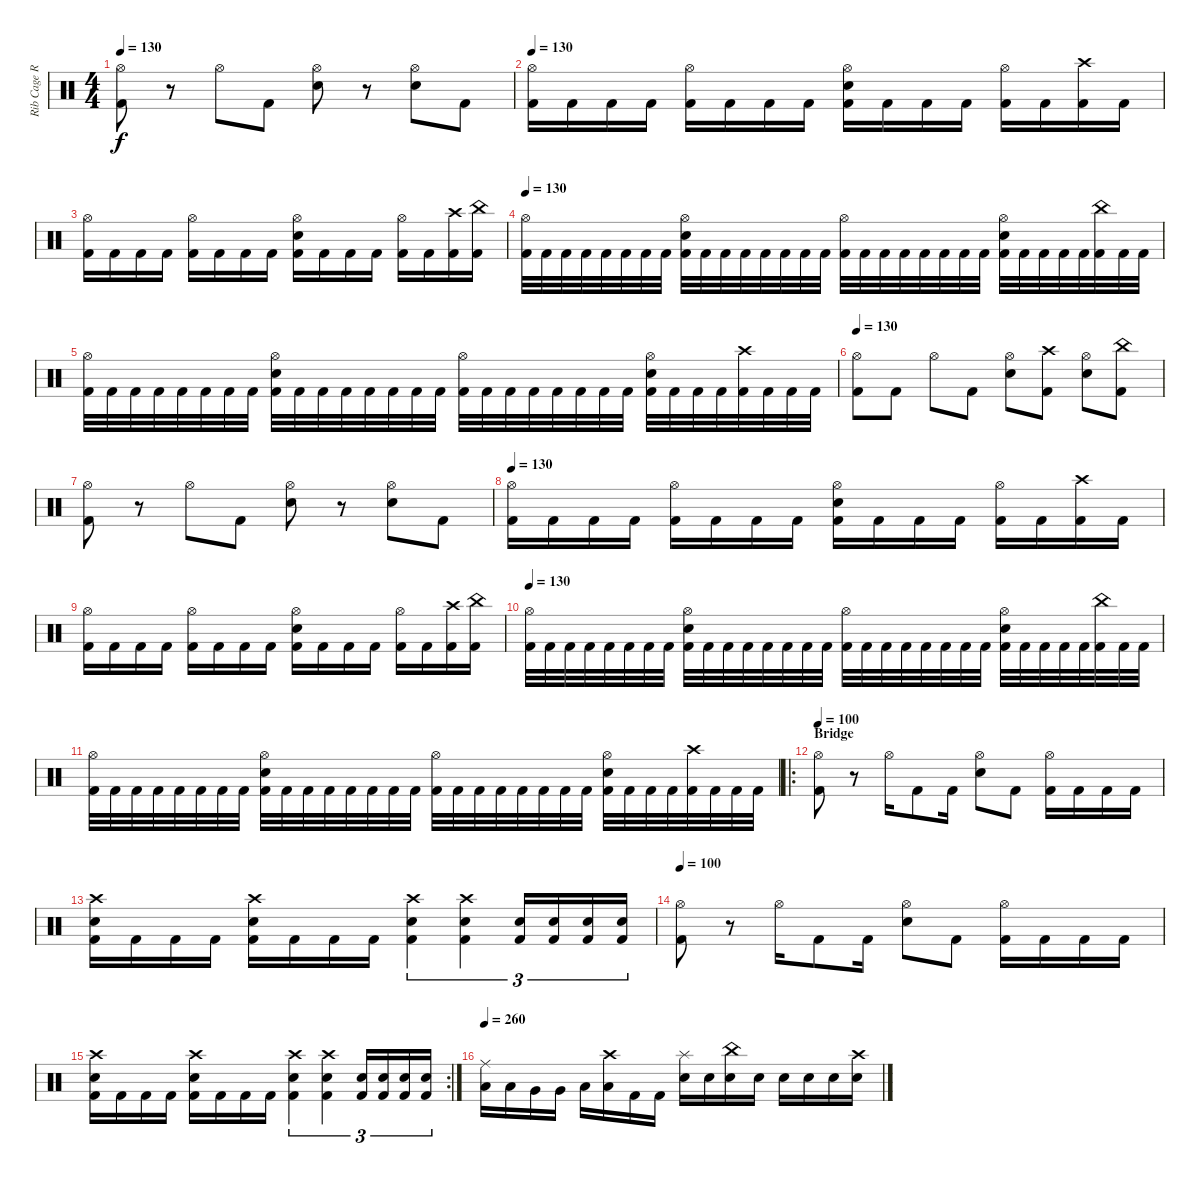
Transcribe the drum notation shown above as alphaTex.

\track ("Rib Cage Rupturing God Stomping Cremator" "Rib Cage R") {instrument percussion}
\staff {score}
\articulation defaults
\ts (4 4)
\tempo 130
\clef neutral
\ks c
("Hi-Hat (open)" "Kick (hit) 2").8{dy f} r.8 "Hi-Hat (open)".8 "Kick (hit) 2".8 ("Hi-Hat (open)" "Electric Snare (hit)").8 r.8 ("Hi-Hat (open)" "Electric Snare (hit)").8 "Kick (hit) 2".8 |
\tempo 130
("Hi-Hat (open)" "Kick (hit) 2").16 "Kick (hit) 2".16 "Kick (hit) 2".16 "Kick (hit) 2".16 ("Hi-Hat (open)" "Kick (hit) 2").16 "Kick (hit) 2".16 "Kick (hit) 2".16 "Kick (hit) 2".16 ("Hi-Hat (open)" "Electric Snare (hit)" "Kick (hit) 2").16 "Kick (hit) 2".16 "Kick (hit) 2".16 "Kick (hit) 2".16 ("Hi-Hat (open)" "Kick (hit) 2").16 "Kick (hit) 2".16 ("Crash high (hit)" "Kick (hit) 2").16 "Kick (hit) 2".16 |
("Hi-Hat (open)" "Kick (hit) 2").16 "Kick (hit) 2".16 "Kick (hit) 2".16 "Kick (hit) 2".16 ("Hi-Hat (open)" "Kick (hit) 2").16 "Kick (hit) 2".16 "Kick (hit) 2".16 "Kick (hit) 2".16 ("Hi-Hat (open)" "Electric Snare (hit)" "Kick (hit) 2").16 "Kick (hit) 2".16 "Kick (hit) 2".16 "Kick (hit) 2".16 ("Hi-Hat (open)" "Kick (hit) 2").16 "Kick (hit) 2".16 ("Crash high (hit)" "Kick (hit) 2").16 ("China (hit)" "Kick (hit) 2").16 |
\tempo 130
("Hi-Hat (open)" "Kick (hit) 2").32 "Kick (hit) 2".32 "Kick (hit) 2".32 "Kick (hit) 2".32 "Kick (hit) 2".32 "Kick (hit) 2".32 "Kick (hit) 2".32 "Kick (hit) 2".32 ("Hi-Hat (open)" "Electric Snare (hit)" "Kick (hit) 2").32 "Kick (hit) 2".32 "Kick (hit) 2".32 "Kick (hit) 2".32 "Kick (hit) 2".32 "Kick (hit) 2".32 "Kick (hit) 2".32 "Kick (hit) 2".32 ("Hi-Hat (open)" "Kick (hit) 2").32 "Kick (hit) 2".32 "Kick (hit) 2".32 "Kick (hit) 2".32 "Kick (hit) 2".32 "Kick (hit) 2".32 "Kick (hit) 2".32 "Kick (hit) 2".32 ("Hi-Hat (open)" "Electric Snare (hit)" "Kick (hit) 2").32 "Kick (hit) 2".32 "Kick (hit) 2".32 "Kick (hit) 2".32 "Kick (hit) 2".32 ("China (hit)" "Kick (hit) 2").32 "Kick (hit) 2".32 "Kick (hit) 2".32 |
("Hi-Hat (open)" "Kick (hit) 2").32 "Kick (hit) 2".32 "Kick (hit) 2".32 "Kick (hit) 2".32 "Kick (hit) 2".32 "Kick (hit) 2".32 "Kick (hit) 2".32 "Kick (hit) 2".32 ("Hi-Hat (open)" "Electric Snare (hit)" "Kick (hit) 2").32 "Kick (hit) 2".32 "Kick (hit) 2".32 "Kick (hit) 2".32 "Kick (hit) 2".32 "Kick (hit) 2".32 "Kick (hit) 2".32 "Kick (hit) 2".32 ("Hi-Hat (open)" "Kick (hit) 2").32 "Kick (hit) 2".32 "Kick (hit) 2".32 "Kick (hit) 2".32 "Kick (hit) 2".32 "Kick (hit) 2".32 "Kick (hit) 2".32 "Kick (hit) 2".32 ("Hi-Hat (open)" "Electric Snare (hit)" "Kick (hit) 2").32 "Kick (hit) 2".32 "Kick (hit) 2".32 "Kick (hit) 2".32 ("Crash high (hit)" "Kick (hit) 2").32 "Kick (hit) 2".32 "Kick (hit) 2".32 "Kick (hit) 2".32 |
\tempo 130
("Hi-Hat (open)" "Kick (hit) 2").8 "Kick (hit) 2".8 "Hi-Hat (open)".8 "Kick (hit) 2".8 ("Hi-Hat (open)" "Electric Snare (hit)").8 ("Crash high (hit)" "Kick (hit) 2").8 ("Hi-Hat (open)" "Electric Snare (hit)").8 ("China (hit)" "Kick (hit) 2").8 |
("Hi-Hat (open)" "Kick (hit) 2").8 r.8 "Hi-Hat (open)".8 "Kick (hit) 2".8 ("Hi-Hat (open)" "Electric Snare (hit)").8 r.8 ("Hi-Hat (open)" "Electric Snare (hit)").8 "Kick (hit) 2".8 |
\tempo 130
("Hi-Hat (open)" "Kick (hit) 2").16 "Kick (hit) 2".16 "Kick (hit) 2".16 "Kick (hit) 2".16 ("Hi-Hat (open)" "Kick (hit) 2").16 "Kick (hit) 2".16 "Kick (hit) 2".16 "Kick (hit) 2".16 ("Hi-Hat (open)" "Electric Snare (hit)" "Kick (hit) 2").16 "Kick (hit) 2".16 "Kick (hit) 2".16 "Kick (hit) 2".16 ("Hi-Hat (open)" "Kick (hit) 2").16 "Kick (hit) 2".16 ("Crash high (hit)" "Kick (hit) 2").16 "Kick (hit) 2".16 |
("Hi-Hat (open)" "Kick (hit) 2").16 "Kick (hit) 2".16 "Kick (hit) 2".16 "Kick (hit) 2".16 ("Hi-Hat (open)" "Kick (hit) 2").16 "Kick (hit) 2".16 "Kick (hit) 2".16 "Kick (hit) 2".16 ("Hi-Hat (open)" "Electric Snare (hit)" "Kick (hit) 2").16 "Kick (hit) 2".16 "Kick (hit) 2".16 "Kick (hit) 2".16 ("Hi-Hat (open)" "Kick (hit) 2").16 "Kick (hit) 2".16 ("Crash high (hit)" "Kick (hit) 2").16 ("China (hit)" "Kick (hit) 2").16 |
\tempo 130
("Hi-Hat (open)" "Kick (hit) 2").32 "Kick (hit) 2".32 "Kick (hit) 2".32 "Kick (hit) 2".32 "Kick (hit) 2".32 "Kick (hit) 2".32 "Kick (hit) 2".32 "Kick (hit) 2".32 ("Hi-Hat (open)" "Electric Snare (hit)" "Kick (hit) 2").32 "Kick (hit) 2".32 "Kick (hit) 2".32 "Kick (hit) 2".32 "Kick (hit) 2".32 "Kick (hit) 2".32 "Kick (hit) 2".32 "Kick (hit) 2".32 ("Hi-Hat (open)" "Kick (hit) 2").32 "Kick (hit) 2".32 "Kick (hit) 2".32 "Kick (hit) 2".32 "Kick (hit) 2".32 "Kick (hit) 2".32 "Kick (hit) 2".32 "Kick (hit) 2".32 ("Hi-Hat (open)" "Electric Snare (hit)" "Kick (hit) 2").32 "Kick (hit) 2".32 "Kick (hit) 2".32 "Kick (hit) 2".32 "Kick (hit) 2".32 ("China (hit)" "Kick (hit) 2").32 "Kick (hit) 2".32 "Kick (hit) 2".32 |
("Hi-Hat (open)" "Kick (hit) 2").32 "Kick (hit) 2".32 "Kick (hit) 2".32 "Kick (hit) 2".32 "Kick (hit) 2".32 "Kick (hit) 2".32 "Kick (hit) 2".32 "Kick (hit) 2".32 ("Hi-Hat (open)" "Electric Snare (hit)" "Kick (hit) 2").32 "Kick (hit) 2".32 "Kick (hit) 2".32 "Kick (hit) 2".32 "Kick (hit) 2".32 "Kick (hit) 2".32 "Kick (hit) 2".32 "Kick (hit) 2".32 ("Hi-Hat (open)" "Kick (hit) 2").32 "Kick (hit) 2".32 "Kick (hit) 2".32 "Kick (hit) 2".32 "Kick (hit) 2".32 "Kick (hit) 2".32 "Kick (hit) 2".32 "Kick (hit) 2".32 ("Hi-Hat (open)" "Electric Snare (hit)" "Kick (hit) 2").32 "Kick (hit) 2".32 "Kick (hit) 2".32 "Kick (hit) 2".32 ("Crash high (hit)" "Kick (hit) 2").32 "Kick (hit) 2".32 "Kick (hit) 2".32 "Kick (hit) 2".32 |
\ro
\section ("" "Bridge")
\tempo 100
("Hi-Hat (open)" "Kick (hit) 2").8 r.8 "Hi-Hat (open)".16 "Kick (hit) 2".8 "Kick (hit) 2".16 ("Hi-Hat (open)" "Electric Snare (hit)").8 "Kick (hit) 2".8 ("Hi-Hat (open)" "Kick (hit) 2").16 "Kick (hit) 2".16 "Kick (hit) 2".16 "Kick (hit) 2".16 |
("Crash high (hit)" "Electric Snare (hit)" "Kick (hit) 2").16 "Kick (hit) 2".16 "Kick (hit) 2".16 "Kick (hit) 2".16 ("Crash high (hit)" "Electric Snare (hit)" "Kick (hit) 2").16 "Kick (hit) 2".16 "Kick (hit) 2".16 "Kick (hit) 2".16 ("Crash high (hit)" "Electric Snare (hit)" "Kick (hit) 2").4{tu (3 2)} ("Crash high (hit)" "Electric Snare (hit)" "Kick (hit) 2").4{tu (3 2)} ("Electric Snare (hit)" "Kick (hit) 2").16{tu (3 2)} ("Electric Snare (hit)" "Kick (hit) 2").16{tu (3 2)} ("Electric Snare (hit)" "Kick (hit) 2").16{tu (3 2)} ("Electric Snare (hit)" "Kick (hit) 2").16{tu (3 2)} |
\tempo 100
("Hi-Hat (open)" "Kick (hit) 2").8 r.8 "Hi-Hat (open)".16 "Kick (hit) 2".8 "Kick (hit) 2".16 ("Hi-Hat (open)" "Electric Snare (hit)").8 "Kick (hit) 2".8 ("Hi-Hat (open)" "Kick (hit) 2").16 "Kick (hit) 2".16 "Kick (hit) 2".16 "Kick (hit) 2".16 |
\rc 2
("Crash high (hit)" "Electric Snare (hit)" "Kick (hit) 2").16 "Kick (hit) 2".16 "Kick (hit) 2".16 "Kick (hit) 2".16 ("Crash high (hit)" "Electric Snare (hit)" "Kick (hit) 2").16 "Kick (hit) 2".16 "Kick (hit) 2".16 "Kick (hit) 2".16 ("Crash high (hit)" "Electric Snare (hit)" "Kick (hit) 2").4{tu (3 2)} ("Crash high (hit)" "Electric Snare (hit)" "Kick (hit) 2").4{tu (3 2)} ("Electric Snare (hit)" "Kick (hit) 2").16{tu (3 2)} ("Electric Snare (hit)" "Kick (hit) 2").16{tu (3 2)} ("Electric Snare (hit)" "Kick (hit) 2").16{tu (3 2)} ("Electric Snare (hit)" "Kick (hit) 2").16{tu (3 2)} |
\tempo 260
("Ride (middle)" "Low Tom (hit)").16 "Low Tom (hit)".16 "Very Low Tom (hit)".16 "Very Low Tom (hit)".16 "Low Floor Tom (hit)".16 ("Crash high (hit)" "Low Floor Tom (hit)").16 "Kick (hit) 2".16 "Kick (hit) 2".16 ("Splash (hit)" "Electric Snare (hit)").16 "Electric Snare (hit)".16 ("China (hit)" "Electric Snare (hit)").16 "Electric Snare (hit)".16 "Electric Snare (hit)".16 "Electric Snare (hit)".16 "Electric Snare (hit)".16 ("Crash high (hit)" "Electric Snare (hit)").16
